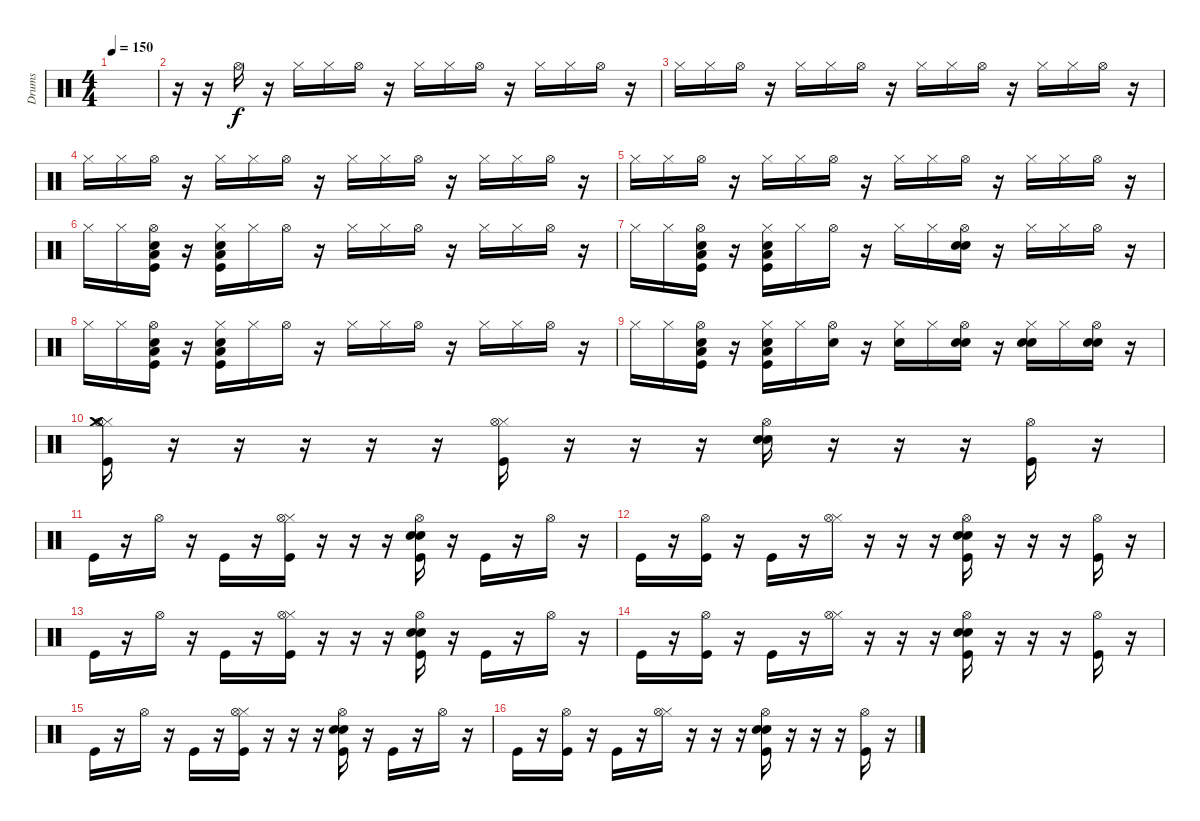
\track ("Drums" "Drums") {instrument percussion}
\staff {score}
\articulation defaults
\ts (4 4)
\tempo 150
\clef neutral
\ks c
|
r.16 r.16 "Hi-Hat (open)".16 r.16 "Hi-Hat (closed)".16 "Hi-Hat (closed)".16 "Hi-Hat (open)".16 r.16 "Hi-Hat (closed)".16 "Hi-Hat (closed)".16 "Hi-Hat (open)".16 r.16 "Hi-Hat (closed)".16 "Hi-Hat (closed)".16 "Hi-Hat (open)".16 r.16 |
"Hi-Hat (closed)".16 "Hi-Hat (closed)".16 "Hi-Hat (open)".16 r.16 "Hi-Hat (closed)".16 "Hi-Hat (closed)".16 "Hi-Hat (open)".16 r.16 "Hi-Hat (closed)".16 "Hi-Hat (closed)".16 "Hi-Hat (open)".16 r.16 "Hi-Hat (closed)".16 "Hi-Hat (closed)".16 "Hi-Hat (open)".16 r.16 |
"Hi-Hat (closed)".16 "Hi-Hat (closed)".16 "Hi-Hat (open)".16 r.16 "Hi-Hat (closed)".16 "Hi-Hat (closed)".16 "Hi-Hat (open)".16 r.16 "Hi-Hat (closed)".16 "Hi-Hat (closed)".16 "Hi-Hat (open)".16 r.16 "Hi-Hat (closed)".16 "Hi-Hat (closed)".16 "Hi-Hat (open)".16 r.16 |
"Hi-Hat (closed)".16 "Hi-Hat (closed)".16 "Hi-Hat (open)".16 r.16 "Hi-Hat (closed)".16 "Hi-Hat (closed)".16 "Hi-Hat (open)".16 r.16 "Hi-Hat (closed)".16 "Hi-Hat (closed)".16 "Hi-Hat (open)".16 r.16 "Hi-Hat (closed)".16 "Hi-Hat (closed)".16 "Hi-Hat (open)".16 r.16 |
"Hi-Hat (closed)".16 "Hi-Hat (closed)".16 ("Kick (hit)" "Low Floor Tom (hit)" "Hi-Hat (open)" "Electric Snare (hit)").16 r.16 ("Kick (hit)" "Low Floor Tom (hit)" "Hi-Hat (closed)" "Electric Snare (hit)").16 "Hi-Hat (closed)".16 "Hi-Hat (open)".16 r.16 "Hi-Hat (closed)".16 "Hi-Hat (closed)".16 "Hi-Hat (open)".16 r.16 "Hi-Hat (closed)".16 "Hi-Hat (closed)".16 "Hi-Hat (open)".16 r.16 |
"Hi-Hat (closed)".16 "Hi-Hat (closed)".16 ("Kick (hit)" "Low Floor Tom (hit)" "Hi-Hat (open)" "Electric Snare (hit)").16 r.16 ("Kick (hit)" "Low Floor Tom (hit)" "Hi-Hat (closed)" "Electric Snare (hit)").16 "Hi-Hat (closed)".16 "Hi-Hat (open)".16 r.16 "Hi-Hat (closed)".16 "Hi-Hat (closed)".16 ("Snare (hit) 2" "Electric Snare (hit)" "Hi-Hat (open)").16 r.16 "Hi-Hat (closed)".16 "Hi-Hat (closed)".16 "Hi-Hat (open)".16 r.16 |
"Hi-Hat (closed)".16 "Hi-Hat (closed)".16 ("Kick (hit)" "Low Floor Tom (hit)" "Hi-Hat (open)" "Electric Snare (hit)").16 r.16 ("Kick (hit)" "Low Floor Tom (hit)" "Hi-Hat (closed)" "Electric Snare (hit)").16 "Hi-Hat (closed)".16 "Hi-Hat (open)".16 r.16 "Hi-Hat (closed)".16 "Hi-Hat (closed)".16 "Hi-Hat (open)".16 r.16 "Hi-Hat (closed)".16 "Hi-Hat (closed)".16 "Hi-Hat (open)".16 r.16 |
"Hi-Hat (closed)".16 "Hi-Hat (closed)".16 ("Kick (hit)" "Low Floor Tom (hit)" "Hi-Hat (open)" "Electric Snare (hit)").16 r.16 ("Kick (hit)" "Low Floor Tom (hit)" "Hi-Hat (closed)" "Electric Snare (hit)").16 "Hi-Hat (closed)".16 ("Snare (hit) 2" "Hi-Hat (open)").16 r.16 ("Snare (hit) 2" "Hi-Hat (closed)").16 "Hi-Hat (closed)".16 ("Electric Snare (hit)" "Snare (hit) 2" "Hi-Hat (open)").16 r.16 ("Electric Snare (hit)" "Snare (hit) 2" "Hi-Hat (closed)").16 "Hi-Hat (closed)".16 ("Electric Snare (hit)" "Snare (hit) 2" "Hi-Hat (open)").16 r.16 |
("Hi-Hat (closed)" "Kick (hit)" "Hi-Hat (open)" "Crash medium (hit)").16 r.16 r.16 r.16 r.16 r.16 ("Hi-Hat (closed)" "Kick (hit)" "Hi-Hat (open)").16 r.16 r.16 r.16 ("Electric Snare (hit)" "Snare (hit) 2" "Hi-Hat (open)").16 r.16 r.16 r.16 ("Kick (hit)" "Hi-Hat (open)").16 r.16 |
"Kick (hit)".16 r.16 "Hi-Hat (open)".16 r.16 "Kick (hit)".16 r.16 ("Hi-Hat (closed)" "Kick (hit)" "Hi-Hat (open)").16 r.16 r.16 r.16 ("Electric Snare (hit)" "Snare (hit) 2" "Kick (hit)" "Hi-Hat (open)").16 r.16 "Kick (hit)".16 r.16 "Hi-Hat (open)".16 r.16 |
"Kick (hit)".16 r.16 ("Kick (hit)" "Hi-Hat (open)").16 r.16 "Kick (hit)".16 r.16 ("Hi-Hat (closed)" "Hi-Hat (open)").16 r.16 r.16 r.16 ("Electric Snare (hit)" "Snare (hit) 2" "Kick (hit)" "Hi-Hat (open)").16 r.16 r.16 r.16 ("Kick (hit)" "Hi-Hat (open)").16 r.16 |
"Kick (hit)".16 r.16 "Hi-Hat (open)".16 r.16 "Kick (hit)".16 r.16 ("Hi-Hat (closed)" "Kick (hit)" "Hi-Hat (open)").16 r.16 r.16 r.16 ("Electric Snare (hit)" "Snare (hit) 2" "Kick (hit)" "Hi-Hat (open)").16 r.16 "Kick (hit)".16 r.16 "Hi-Hat (open)".16 r.16 |
"Kick (hit)".16 r.16 ("Kick (hit)" "Hi-Hat (open)").16 r.16 "Kick (hit)".16 r.16 ("Hi-Hat (closed)" "Hi-Hat (open)").16 r.16 r.16 r.16 ("Electric Snare (hit)" "Snare (hit) 2" "Kick (hit)" "Hi-Hat (open)").16 r.16 r.16 r.16 ("Kick (hit)" "Hi-Hat (open)").16 r.16 |
"Kick (hit)".16 r.16 "Hi-Hat (open)".16 r.16 "Kick (hit)".16 r.16 ("Hi-Hat (closed)" "Kick (hit)" "Hi-Hat (open)").16 r.16 r.16 r.16 ("Electric Snare (hit)" "Snare (hit) 2" "Kick (hit)" "Hi-Hat (open)").16 r.16 "Kick (hit)".16 r.16 "Hi-Hat (open)".16 r.16 |
"Kick (hit)".16 r.16 ("Kick (hit)" "Hi-Hat (open)").16 r.16 "Kick (hit)".16 r.16 ("Hi-Hat (closed)" "Hi-Hat (open)").16 r.16 r.16 r.16 ("Electric Snare (hit)" "Snare (hit) 2" "Kick (hit)" "Hi-Hat (open)").16 r.16 r.16 r.16 ("Kick (hit)" "Hi-Hat (open)").16 r.16
